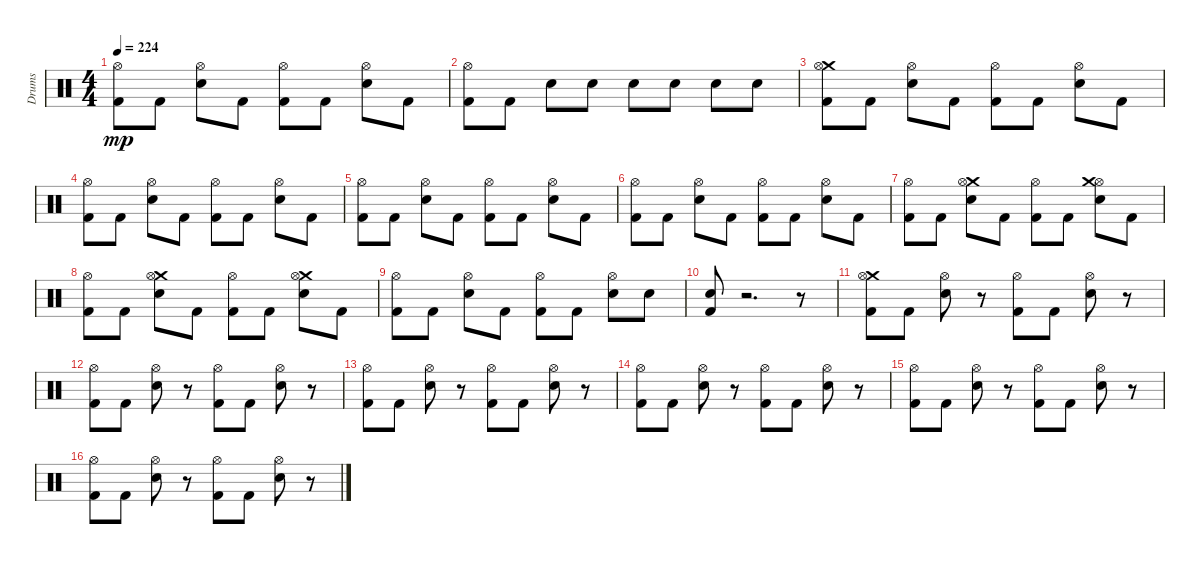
\track ("Drums" "Drums") {instrument percussion}
\staff {score}
\articulation defaults
\ts (4 4)
\tempo 224
\clef neutral
\ks c
("Hi-Hat (open)" "Kick (hit) 2").8{dy mp} "Kick (hit) 2".8 ("Electric Snare (hit)" "Hi-Hat (open)").8 "Kick (hit) 2".8 ("Kick (hit) 2" "Hi-Hat (open)").8 "Kick (hit) 2".8 ("Hi-Hat (open)" "Electric Snare (hit)").8 "Kick (hit) 2".8 |
("Kick (hit) 2" "Hi-Hat (open)").8 "Kick (hit) 2".8 "Electric Snare (hit)".8 "Electric Snare (hit)".8 "Electric Snare (hit)".8 "Electric Snare (hit)".8 "Electric Snare (hit)".8 "Electric Snare (hit)".8 |
("Crash medium (hit)" "Hi-Hat (open)" "Kick (hit) 2").8 "Kick (hit) 2".8 ("Electric Snare (hit)" "Hi-Hat (open)").8 "Kick (hit) 2".8 ("Kick (hit) 2" "Hi-Hat (open)").8 "Kick (hit) 2".8 ("Hi-Hat (open)" "Electric Snare (hit)").8 "Kick (hit) 2".8 |
("Kick (hit) 2" "Hi-Hat (open)").8 "Kick (hit) 2".8 ("Hi-Hat (open)" "Electric Snare (hit)").8 "Kick (hit) 2".8 ("Kick (hit) 2" "Hi-Hat (open)").8 "Kick (hit) 2".8 ("Hi-Hat (open)" "Electric Snare (hit)").8 "Kick (hit) 2".8 |
("Kick (hit) 2" "Hi-Hat (open)").8 "Kick (hit) 2".8 ("Electric Snare (hit)" "Hi-Hat (open)").8 "Kick (hit) 2".8 ("Hi-Hat (open)" "Kick (hit) 2").8 "Kick (hit) 2".8 ("Hi-Hat (open)" "Electric Snare (hit)").8 "Kick (hit) 2".8 |
("Hi-Hat (open)" "Kick (hit) 2").8 "Kick (hit) 2".8 ("Electric Snare (hit)" "Hi-Hat (open)").8 "Kick (hit) 2".8 ("Hi-Hat (open)" "Kick (hit) 2").8 "Kick (hit) 2".8 ("Electric Snare (hit)" "Hi-Hat (open)").8 "Kick (hit) 2".8 |
("Hi-Hat (open)" "Kick (hit) 2").8 "Kick (hit) 2".8 ("Crash medium (hit)" "Hi-Hat (open)" "Electric Snare (hit)").8 "Kick (hit) 2".8 ("Hi-Hat (open)" "Kick (hit) 2").8 "Kick (hit) 2".8 ("Hi-Hat (open)" "Crash medium (hit)" "Electric Snare (hit)").8 "Kick (hit) 2".8 |
("Kick (hit) 2" "Hi-Hat (open)").8 "Kick (hit) 2".8 ("Electric Snare (hit)" "Crash medium (hit)" "Hi-Hat (open)").8 "Kick (hit) 2".8 ("Kick (hit) 2" "Hi-Hat (open)").8 "Kick (hit) 2".8 ("Crash medium (hit)" "Electric Snare (hit)" "Hi-Hat (open)").8 "Kick (hit) 2".8 |
("Kick (hit) 2" "Hi-Hat (open)").8 "Kick (hit) 2".8 ("Hi-Hat (open)" "Electric Snare (hit)").8 "Kick (hit) 2".8 ("Kick (hit) 2" "Hi-Hat (open)").8 "Kick (hit) 2".8 ("Hi-Hat (open)" "Electric Snare (hit)").8 "Electric Snare (hit)".8 |
("Electric Snare (hit)" "Kick (hit) 2").8 r.2{d} r.8 |
("Crash medium (hit)" "Hi-Hat (open)" "Kick (hit) 2").8 "Kick (hit) 2".8 ("Electric Snare (hit)" "Hi-Hat (open)").8 r.8 ("Hi-Hat (open)" "Kick (hit) 2").8 "Kick (hit) 2".8 ("Hi-Hat (open)" "Electric Snare (hit)").8 r.8 |
("Kick (hit) 2" "Hi-Hat (open)").8 "Kick (hit) 2".8 ("Hi-Hat (open)" "Electric Snare (hit)").8 r.8 ("Hi-Hat (open)" "Kick (hit) 2").8 "Kick (hit) 2".8 ("Electric Snare (hit)" "Hi-Hat (open)").8 r.8 |
("Kick (hit) 2" "Hi-Hat (open)").8 "Kick (hit) 2".8 ("Electric Snare (hit)" "Hi-Hat (open)").8 r.8 ("Kick (hit) 2" "Hi-Hat (open)").8 "Kick (hit) 2".8 ("Electric Snare (hit)" "Hi-Hat (open)").8 r.8 |
("Kick (hit) 2" "Hi-Hat (open)").8 "Kick (hit) 2".8 ("Hi-Hat (open)" "Electric Snare (hit)").8 r.8 ("Kick (hit) 2" "Hi-Hat (open)").8 "Kick (hit) 2".8 ("Hi-Hat (open)" "Electric Snare (hit)").8 r.8 |
("Hi-Hat (open)" "Kick (hit) 2").8 "Kick (hit) 2".8 ("Electric Snare (hit)" "Hi-Hat (open)").8 r.8 ("Kick (hit) 2" "Hi-Hat (open)").8 "Kick (hit) 2".8 ("Electric Snare (hit)" "Hi-Hat (open)").8 r.8 |
("Hi-Hat (open)" "Kick (hit) 2").8 "Kick (hit) 2".8 ("Electric Snare (hit)" "Hi-Hat (open)").8 r.8 ("Kick (hit) 2" "Hi-Hat (open)").8 "Kick (hit) 2".8 ("Electric Snare (hit)" "Hi-Hat (open)").8 r.8
